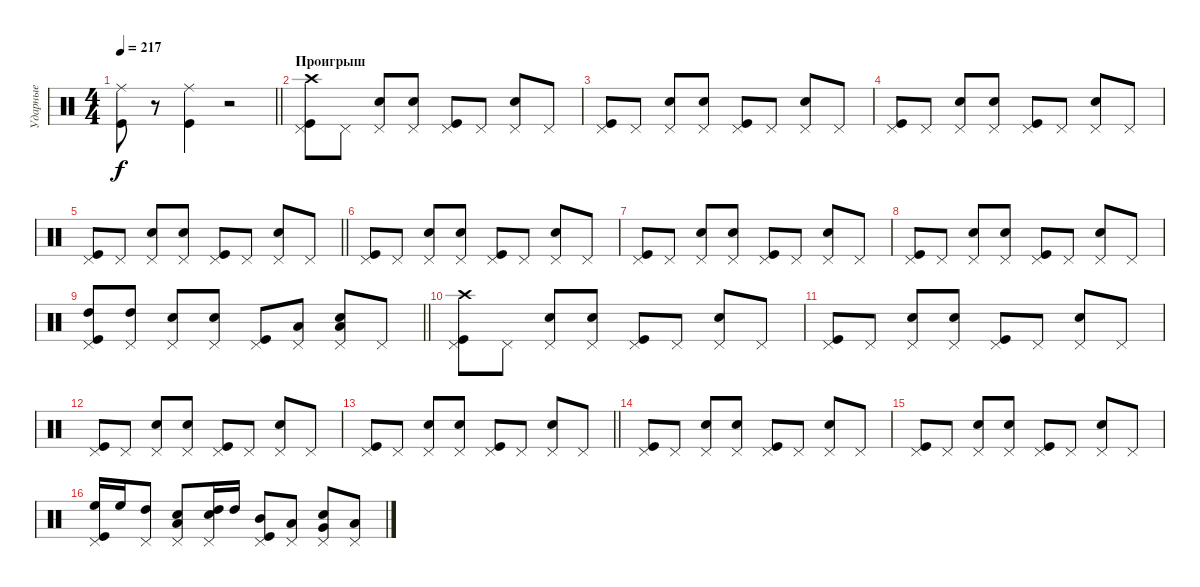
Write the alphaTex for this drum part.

\track ("Ударные" "Ударные") {instrument percussion}
\staff {score}
\articulation defaults
\ts (4 4)
\tempo 217
\clef neutral
\barLineRight lightlight
\ks c
("Kick (hit)" "Ride (middle)").8{dy f} r.8 ("Kick (hit)" "Ride (middle)").4 r.2 |
\section ("" "Проигрыш")
("Pedal Hi-Hat (hit)" "Kick (hit)" "Crash high (hit)").8 "Pedal Hi-Hat (hit)".8 ("Pedal Hi-Hat (hit)" "Snare (hit) 2").8 ("Pedal Hi-Hat (hit)" "Snare (hit) 2").8 ("Pedal Hi-Hat (hit)" "Kick (hit)").8 "Pedal Hi-Hat (hit)".8 ("Pedal Hi-Hat (hit)" "Snare (hit) 2").8 "Pedal Hi-Hat (hit)".8 |
("Pedal Hi-Hat (hit)" "Kick (hit)").8 "Pedal Hi-Hat (hit)".8 ("Pedal Hi-Hat (hit)" "Snare (hit) 2").8 ("Pedal Hi-Hat (hit)" "Snare (hit) 2").8 ("Pedal Hi-Hat (hit)" "Kick (hit)").8 "Pedal Hi-Hat (hit)".8 ("Pedal Hi-Hat (hit)" "Snare (hit) 2").8 "Pedal Hi-Hat (hit)".8 |
("Pedal Hi-Hat (hit)" "Kick (hit)").8 "Pedal Hi-Hat (hit)".8 ("Pedal Hi-Hat (hit)" "Snare (hit) 2").8 ("Pedal Hi-Hat (hit)" "Snare (hit) 2").8 ("Pedal Hi-Hat (hit)" "Kick (hit)").8 "Pedal Hi-Hat (hit)".8 ("Pedal Hi-Hat (hit)" "Snare (hit) 2").8 "Pedal Hi-Hat (hit)".8 |
\barLineRight lightlight
("Pedal Hi-Hat (hit)" "Kick (hit)").8 "Pedal Hi-Hat (hit)".8 ("Pedal Hi-Hat (hit)" "Snare (hit) 2").8 ("Pedal Hi-Hat (hit)" "Snare (hit) 2").8 ("Pedal Hi-Hat (hit)" "Kick (hit)").8 "Pedal Hi-Hat (hit)".8 ("Pedal Hi-Hat (hit)" "Snare (hit) 2").8 "Pedal Hi-Hat (hit)".8 |
("Pedal Hi-Hat (hit)" "Kick (hit)").8 "Pedal Hi-Hat (hit)".8 ("Pedal Hi-Hat (hit)" "Snare (hit) 2").8 ("Pedal Hi-Hat (hit)" "Snare (hit) 2").8 ("Pedal Hi-Hat (hit)" "Kick (hit)").8 "Pedal Hi-Hat (hit)".8 ("Pedal Hi-Hat (hit)" "Snare (hit) 2").8 "Pedal Hi-Hat (hit)".8 |
("Pedal Hi-Hat (hit)" "Kick (hit)").8 "Pedal Hi-Hat (hit)".8 ("Pedal Hi-Hat (hit)" "Snare (hit) 2").8 ("Pedal Hi-Hat (hit)" "Snare (hit) 2").8 ("Pedal Hi-Hat (hit)" "Kick (hit)").8 "Pedal Hi-Hat (hit)".8 ("Pedal Hi-Hat (hit)" "Snare (hit) 2").8 "Pedal Hi-Hat (hit)".8 |
("Pedal Hi-Hat (hit)" "Kick (hit)").8 "Pedal Hi-Hat (hit)".8 ("Pedal Hi-Hat (hit)" "Snare (hit) 2").8 ("Pedal Hi-Hat (hit)" "Snare (hit) 2").8 ("Pedal Hi-Hat (hit)" "Kick (hit)").8 "Pedal Hi-Hat (hit)".8 ("Pedal Hi-Hat (hit)" "Snare (hit) 2").8 "Pedal Hi-Hat (hit)".8 |
\barLineRight lightlight
("Pedal Hi-Hat (hit)" "Kick (hit)" "High Tom (hit)").8 ("Pedal Hi-Hat (hit)" "High Tom (hit)").8 ("Pedal Hi-Hat (hit)" "Snare (hit) 2").8 ("Pedal Hi-Hat (hit)" "Snare (hit) 2").8 ("Pedal Hi-Hat (hit)" "Kick (hit)").8 ("Pedal Hi-Hat (hit)" "Low Tom (hit)").8 ("Pedal Hi-Hat (hit)" "Snare (hit) 2" "Low Tom (hit)").8 "Pedal Hi-Hat (hit)".8 |
("Pedal Hi-Hat (hit)" "Kick (hit)" "Crash high (hit)").8 "Pedal Hi-Hat (hit)".8 ("Pedal Hi-Hat (hit)" "Snare (hit) 2").8 ("Pedal Hi-Hat (hit)" "Snare (hit) 2").8 ("Pedal Hi-Hat (hit)" "Kick (hit)").8 "Pedal Hi-Hat (hit)".8 ("Pedal Hi-Hat (hit)" "Snare (hit) 2").8 "Pedal Hi-Hat (hit)".8 |
("Pedal Hi-Hat (hit)" "Kick (hit)").8 "Pedal Hi-Hat (hit)".8 ("Pedal Hi-Hat (hit)" "Snare (hit) 2").8 ("Pedal Hi-Hat (hit)" "Snare (hit) 2").8 ("Pedal Hi-Hat (hit)" "Kick (hit)").8 "Pedal Hi-Hat (hit)".8 ("Pedal Hi-Hat (hit)" "Snare (hit) 2").8 "Pedal Hi-Hat (hit)".8 |
("Pedal Hi-Hat (hit)" "Kick (hit)").8 "Pedal Hi-Hat (hit)".8 ("Pedal Hi-Hat (hit)" "Snare (hit) 2").8 ("Pedal Hi-Hat (hit)" "Snare (hit) 2").8 ("Pedal Hi-Hat (hit)" "Kick (hit)").8 "Pedal Hi-Hat (hit)".8 ("Pedal Hi-Hat (hit)" "Snare (hit) 2").8 "Pedal Hi-Hat (hit)".8 |
\barLineRight lightlight
("Pedal Hi-Hat (hit)" "Kick (hit)").8 "Pedal Hi-Hat (hit)".8 ("Pedal Hi-Hat (hit)" "Snare (hit) 2").8 ("Pedal Hi-Hat (hit)" "Snare (hit) 2").8 ("Pedal Hi-Hat (hit)" "Kick (hit)").8 "Pedal Hi-Hat (hit)".8 ("Pedal Hi-Hat (hit)" "Snare (hit) 2").8 "Pedal Hi-Hat (hit)".8 |
("Pedal Hi-Hat (hit)" "Kick (hit)").8 "Pedal Hi-Hat (hit)".8 ("Pedal Hi-Hat (hit)" "Snare (hit) 2").8 ("Pedal Hi-Hat (hit)" "Snare (hit) 2").8 ("Pedal Hi-Hat (hit)" "Kick (hit)").8 "Pedal Hi-Hat (hit)".8 ("Pedal Hi-Hat (hit)" "Snare (hit) 2").8 "Pedal Hi-Hat (hit)".8 |
("Pedal Hi-Hat (hit)" "Kick (hit)").8 "Pedal Hi-Hat (hit)".8 ("Pedal Hi-Hat (hit)" "Snare (hit) 2").8 ("Pedal Hi-Hat (hit)" "Snare (hit) 2").8 ("Pedal Hi-Hat (hit)" "Kick (hit)").8 "Pedal Hi-Hat (hit)".8 ("Pedal Hi-Hat (hit)" "Snare (hit) 2").8 "Pedal Hi-Hat (hit)".8 |
("Pedal Hi-Hat (hit)" "Kick (hit)" "High Floor Tom (hit)").16 "High Floor Tom (hit)".16 ("Pedal Hi-Hat (hit)" "High Tom (hit)").8 ("Pedal Hi-Hat (hit)" "Snare (hit) 2" "Low Tom (hit)").8 ("Pedal Hi-Hat (hit)" "Snare (hit) 2" "High Tom (hit)").16 "High Tom (hit)".16 ("Pedal Hi-Hat (hit)" "Kick (hit)" "Mid Tom (hit)").8 ("Pedal Hi-Hat (hit)" "Low Tom (hit)").8 ("Pedal Hi-Hat (hit)" "Snare (hit) 2" "Very Low Tom (hit)").8 ("Pedal Hi-Hat (hit)" "Low Floor Tom (hit)").8
